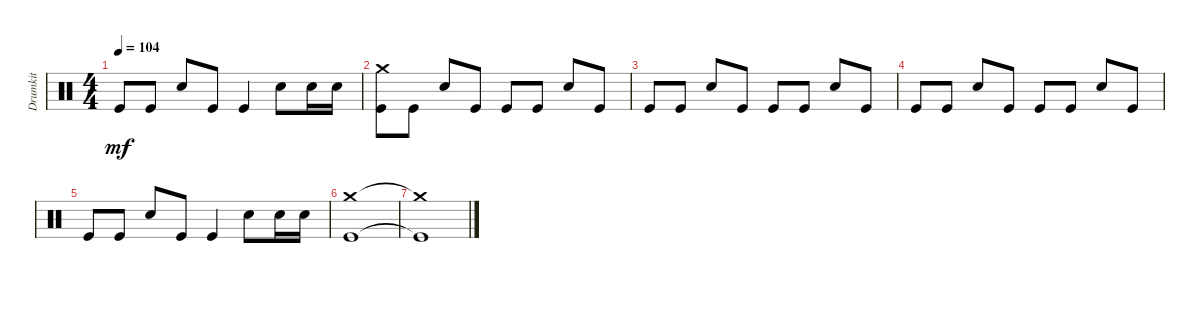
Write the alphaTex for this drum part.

\track ("Drumkit" "Drumkit") {instrument percussion}
\staff {score}
\articulation defaults
\ts (4 4)
\tempo 104
\clef neutral
\ks c "Kick (hit)".8{dy mf} "Kick (hit)".8 "Snare (hit) 2".8 "Kick (hit)".8 "Kick (hit)".4 "Snare (hit) 2".8 "Snare (hit) 2".16 "Snare (hit) 2".16
|
("Crash medium (hit)" "Kick (hit)").8 "Kick (hit)".8 "Snare (hit) 2".8 "Kick (hit)".8 "Kick (hit)".8 "Kick (hit)".8 "Snare (hit) 2".8 "Kick (hit)".8 |
"Kick (hit)".8 "Kick (hit)".8 "Snare (hit) 2".8 "Kick (hit)".8 "Kick (hit)".8 "Kick (hit)".8 "Snare (hit) 2".8 "Kick (hit)".8 |
"Kick (hit)".8 "Kick (hit)".8 "Snare (hit) 2".8 "Kick (hit)".8 "Kick (hit)".8 "Kick (hit)".8 "Snare (hit) 2".8 "Kick (hit)".8 |
"Kick (hit)".8 "Kick (hit)".8 "Snare (hit) 2".8 "Kick (hit)".8 "Kick (hit)".4 "Snare (hit) 2".8 "Snare (hit) 2".16 "Snare (hit) 2".16 |
("Crash medium (hit)" "Kick (hit)").1 |
("Crash medium (hit)"{t} "Kick (hit)"{t}).1
